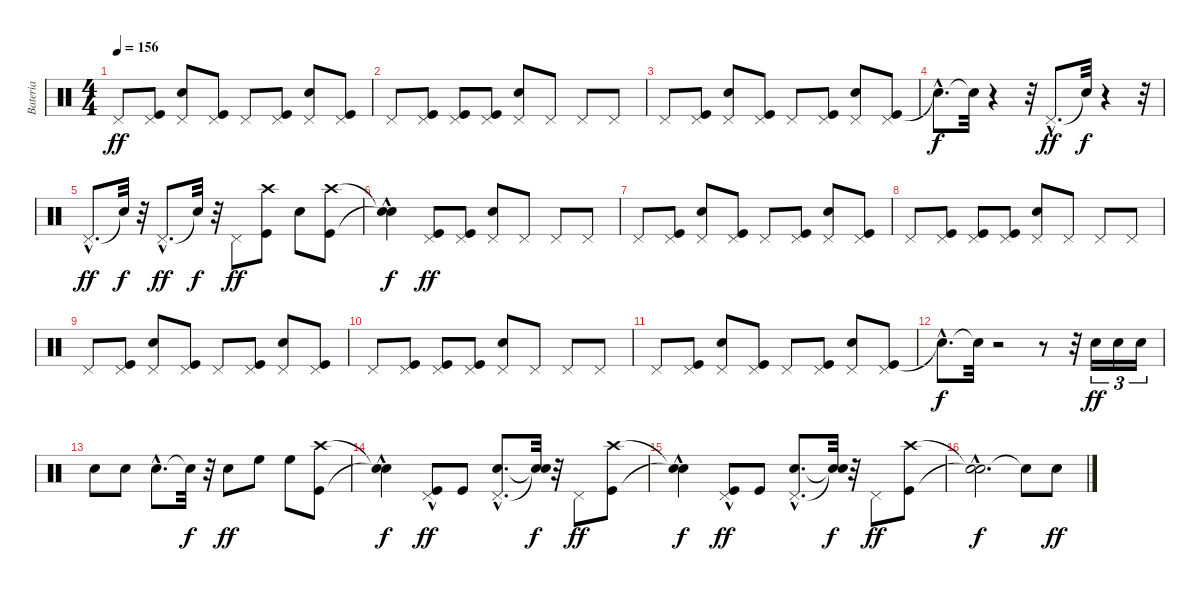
\track ("Bateria" "Bateria") {instrument percussion}
\staff {score}
\articulation defaults
\ts (4 4)
\tempo 156
\clef neutral
\ks c "Pedal Hi-Hat (hit)".8{dy ff}
("Kick (hit)" "Pedal Hi-Hat (hit)").8 ("Snare (hit) 2" "Pedal Hi-Hat (hit)").8 ("Kick (hit)" "Pedal Hi-Hat (hit)").8 "Pedal Hi-Hat (hit)".8 ("Kick (hit)" "Pedal Hi-Hat (hit)").8 ("Snare (hit) 2" "Pedal Hi-Hat (hit)").8 ("Kick (hit)" "Pedal Hi-Hat (hit)").8 |
"Pedal Hi-Hat (hit)".8 ("Kick (hit)" "Pedal Hi-Hat (hit)").8 ("Kick (hit)" "Pedal Hi-Hat (hit)").8 ("Kick (hit)" "Pedal Hi-Hat (hit)").8 ("Snare (hit) 2" "Pedal Hi-Hat (hit)").8 "Pedal Hi-Hat (hit)".8 "Pedal Hi-Hat (hit)".8 "Pedal Hi-Hat (hit)".8 |
"Pedal Hi-Hat (hit)".8 ("Kick (hit)" "Pedal Hi-Hat (hit)").8 ("Snare (hit) 2" "Pedal Hi-Hat (hit)").8 ("Kick (hit)" "Pedal Hi-Hat (hit)").8 "Pedal Hi-Hat (hit)".8 ("Kick (hit)" "Pedal Hi-Hat (hit)").8 ("Snare (hit) 2" "Pedal Hi-Hat (hit)").8 ("Kick (hit)" "Pedal Hi-Hat (hit)").8 |
"Snare (hit)"{hac t}.8{d dy f} "Snare (hit)"{t}.32 r.4 r.32 "Pedal Hi-Hat (hit)"{hac}.8{d dy ff} "Snare (hit)"{t}.32{dy f} r.4 r.32 |
"Pedal Hi-Hat (hit)"{hac}.8{d dy ff} "Snare (hit)"{t}.32{dy f} r.32 "Pedal Hi-Hat (hit)"{hac}.8{d dy ff} "Snare (hit)"{t}.32{dy f} r.32 "Pedal Hi-Hat (hit)".8{dy ff} ("Kick (hit)" "Crash high (hit)").8 "Snare (hit) 2".8 ("Kick (hit)" "Crash high (hit)").8 |
("Snare (hit)"{hac t} "Snare (hit)"{t}).4{dy f} ("Kick (hit)" "Pedal Hi-Hat (hit)").8{dy ff} ("Kick (hit)" "Pedal Hi-Hat (hit)").8 ("Snare (hit) 2" "Pedal Hi-Hat (hit)").8 "Pedal Hi-Hat (hit)".8 "Pedal Hi-Hat (hit)".8 "Pedal Hi-Hat (hit)".8 |
"Pedal Hi-Hat (hit)".8 ("Kick (hit)" "Pedal Hi-Hat (hit)").8 ("Snare (hit) 2" "Pedal Hi-Hat (hit)").8 ("Kick (hit)" "Pedal Hi-Hat (hit)").8 "Pedal Hi-Hat (hit)".8 ("Kick (hit)" "Pedal Hi-Hat (hit)").8 ("Snare (hit) 2" "Pedal Hi-Hat (hit)").8 ("Kick (hit)" "Pedal Hi-Hat (hit)").8 |
"Pedal Hi-Hat (hit)".8 ("Kick (hit)" "Pedal Hi-Hat (hit)").8 ("Kick (hit)" "Pedal Hi-Hat (hit)").8 ("Kick (hit)" "Pedal Hi-Hat (hit)").8 ("Snare (hit) 2" "Pedal Hi-Hat (hit)").8 "Pedal Hi-Hat (hit)".8 "Pedal Hi-Hat (hit)".8 "Pedal Hi-Hat (hit)".8 |
"Pedal Hi-Hat (hit)".8 ("Kick (hit)" "Pedal Hi-Hat (hit)").8 ("Snare (hit) 2" "Pedal Hi-Hat (hit)").8 ("Kick (hit)" "Pedal Hi-Hat (hit)").8 "Pedal Hi-Hat (hit)".8 ("Kick (hit)" "Pedal Hi-Hat (hit)").8 ("Snare (hit) 2" "Pedal Hi-Hat (hit)").8 ("Kick (hit)" "Pedal Hi-Hat (hit)").8 |
"Pedal Hi-Hat (hit)".8 ("Kick (hit)" "Pedal Hi-Hat (hit)").8 ("Kick (hit)" "Pedal Hi-Hat (hit)").8 ("Kick (hit)" "Pedal Hi-Hat (hit)").8 ("Snare (hit) 2" "Pedal Hi-Hat (hit)").8 "Pedal Hi-Hat (hit)".8 "Pedal Hi-Hat (hit)".8 "Pedal Hi-Hat (hit)".8 |
"Pedal Hi-Hat (hit)".8 ("Kick (hit)" "Pedal Hi-Hat (hit)").8 ("Snare (hit) 2" "Pedal Hi-Hat (hit)").8 ("Kick (hit)" "Pedal Hi-Hat (hit)").8 "Pedal Hi-Hat (hit)".8 ("Kick (hit)" "Pedal Hi-Hat (hit)").8 ("Snare (hit) 2" "Pedal Hi-Hat (hit)").8 ("Kick (hit)" "Pedal Hi-Hat (hit)").8 |
"Snare (hit)"{hac t}.8{d dy f} "Snare (hit)"{t}.32 r.2 r.8 r.32 "Snare (hit) 2".16{tu (3 2) dy ff} "Snare (hit) 2".16{tu (3 2)} "Snare (hit) 2".16{tu (3 2)} |
"Snare (hit) 2".8 "Snare (hit) 2".8 "Snare (hit) 2"{hac}.8{d} "Snare (hit)"{t}.32{dy f} r.32 "Snare (hit) 2".8{dy ff} "High Floor Tom (hit)".8 "High Floor Tom (hit)".8 ("Kick (hit)" "Crash high (hit)").8 |
("Snare (hit)"{hac t} "Snare (hit)"{t}).4{dy f} ("Kick (hit)" "Pedal Hi-Hat (hit)"{hac}).8{dy ff} "Kick (hit)".8 ("Snare (hit) 2"{hac} "Pedal Hi-Hat (hit)"{hac}).8{d} ("Snare (hit)"{t} "Snare (hit)"{t}).32{dy f} r.32 "Pedal Hi-Hat (hit)".8{dy ff} ("Kick (hit)" "Crash high (hit)").8 |
("Snare (hit)"{hac t} "Snare (hit)"{t}).4{dy f} ("Kick (hit)" "Pedal Hi-Hat (hit)"{hac}).8{dy ff} "Kick (hit)".8 ("Snare (hit) 2"{hac} "Pedal Hi-Hat (hit)"{hac}).8{d} ("Snare (hit)"{t} "Snare (hit)"{t}).32{dy f} r.32 "Pedal Hi-Hat (hit)".8{dy ff} ("Kick (hit)" "Crash high (hit)").8 |
("Snare (hit)"{hac t} "Snare (hit)"{hac t}).2{d dy f} "Snare (hit)"{t}.8 "Snare (hit) 2".8{dy ff}
